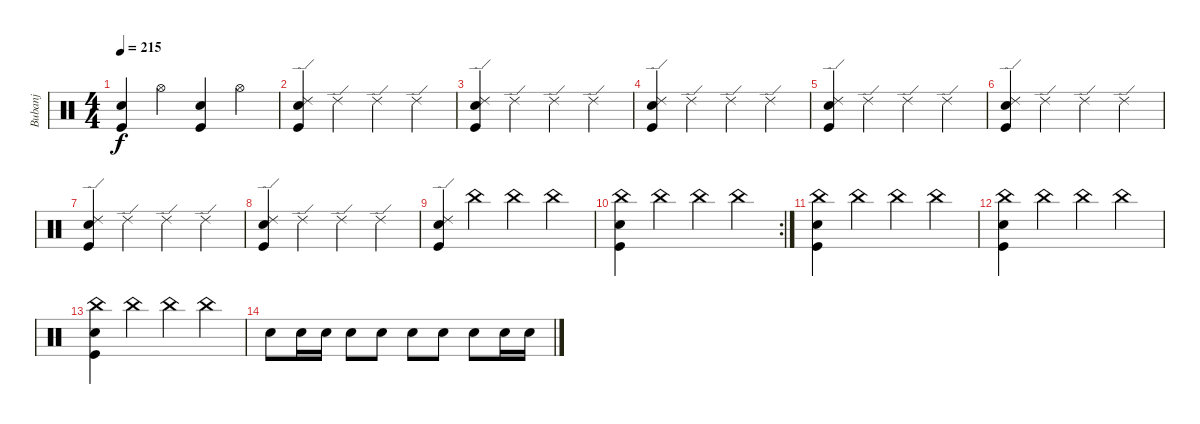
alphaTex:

\track ("Bubanj" "Bubanj") {instrument percussion}
\staff {score}
\articulation defaults
\ts (4 4)
\tempo 215
\clef neutral
\ks c
("Kick (hit)" "Snare (hit) 2").4{dy f} "Hi-Hat (open)".4 ("Kick (hit)" "Snare (hit) 2").4 "Hi-Hat (open)".4 |
("Kick (hit)" "Ride (edge) 2" "Snare (hit) 2").4 "Ride (edge) 2".4 "Ride (edge) 2".4 "Ride (edge) 2".4 |
("Kick (hit)" "Ride (edge) 2" "Snare (hit) 2").4 "Ride (edge) 2".4 "Ride (edge) 2".4 "Ride (edge) 2".4 |
("Kick (hit)" "Ride (edge) 2" "Snare (hit) 2").4 "Ride (edge) 2".4 "Ride (edge) 2".4 "Ride (edge) 2".4 |
("Kick (hit)" "Ride (edge) 2" "Snare (hit) 2").4 "Ride (edge) 2".4 "Ride (edge) 2".4 "Ride (edge) 2".4 |
("Kick (hit)" "Ride (edge) 2" "Snare (hit) 2").4 "Ride (edge) 2".4 "Ride (edge) 2".4 "Ride (edge) 2".4 |
("Kick (hit)" "Ride (edge) 2" "Snare (hit) 2").4 "Ride (edge) 2".4 "Ride (edge) 2".4 "Ride (edge) 2".4 |
("Kick (hit)" "Ride (edge) 2" "Snare (hit) 2").4 "Ride (edge) 2".4 "Ride (edge) 2".4 "Ride (edge) 2".4 |
("Kick (hit)" "Ride (edge) 2" "Snare (hit) 2").4 "China (hit)".4 "China (hit)".4 "China (hit)".4 |
\rc 2
("Kick (hit)" "China (hit)" "Snare (hit) 2").4 "China (hit)".4 "China (hit)".4 "China (hit)".4 |
("Kick (hit)" "China (hit)" "Snare (hit) 2").4 "China (hit)".4 "China (hit)".4 "China (hit)".4 |
("Kick (hit)" "China (hit)" "Snare (hit) 2").4 "China (hit)".4 "China (hit)".4 "China (hit)".4 |
("Kick (hit)" "China (hit)" "Snare (hit) 2").4 "China (hit)".4 "China (hit)".4 "China (hit)".4 |
"Snare (hit) 2".8 "Snare (hit) 2".16 "Snare (hit) 2".16 "Snare (hit) 2".8 "Snare (hit) 2".8 "Snare (hit) 2".8 "Snare (hit) 2".8 "Snare (hit) 2".8 "Snare (hit) 2".16 "Snare (hit) 2".16
